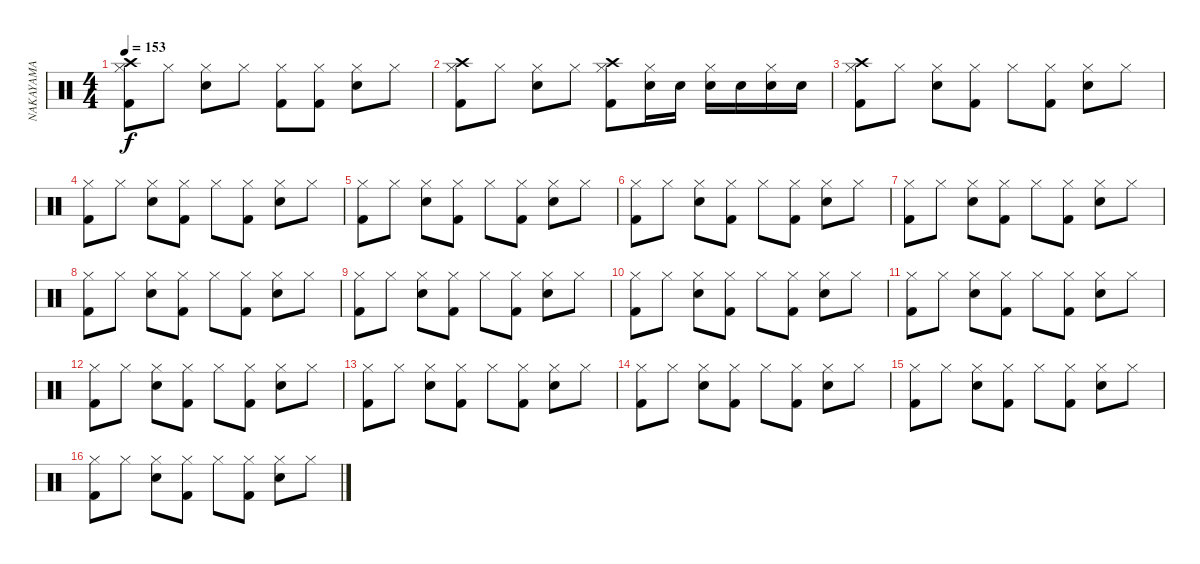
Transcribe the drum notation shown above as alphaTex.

\track ("NAKAYAMA" "NAKAYAMA") {instrument percussion}
\staff {score}
\articulation defaults
\ts (4 4)
\tempo 153
\clef neutral
\ks c
("Crash high (hit)" "Hi-Hat (closed)" "Kick (hit) 2").8{dy f} "Hi-Hat (closed)".8 ("Hi-Hat (closed)" "Snare (hit) 2").8 "Hi-Hat (closed)".8 ("Hi-Hat (closed)" "Kick (hit) 2").8 ("Hi-Hat (closed)" "Kick (hit) 2").8 ("Hi-Hat (closed)" "Snare (hit) 2").8 "Hi-Hat (closed)".8 |
("Crash high (hit)" "Hi-Hat (closed)" "Kick (hit) 2").8 "Hi-Hat (closed)".8 ("Hi-Hat (closed)" "Snare (hit) 2").8 "Hi-Hat (closed)".8 ("Crash high (hit)" "Hi-Hat (closed)" "Kick (hit) 2").8 ("Hi-Hat (closed)" "Snare (hit) 2").16 "Snare (hit) 2".16 ("Hi-Hat (closed)" "Snare (hit) 2").16 "Snare (hit) 2".16 ("Hi-Hat (closed)" "Snare (hit) 2").16 "Snare (hit) 2".16 |
("Crash high (hit)" "Hi-Hat (closed)" "Kick (hit) 2").8 "Hi-Hat (closed)".8 ("Hi-Hat (closed)" "Snare (hit) 2").8 ("Hi-Hat (closed)" "Kick (hit) 2").8 "Hi-Hat (closed)".8 ("Hi-Hat (closed)" "Kick (hit) 2").8 ("Hi-Hat (closed)" "Snare (hit) 2").8 "Hi-Hat (closed)".8 |
("Hi-Hat (closed)" "Kick (hit) 2").8 "Hi-Hat (closed)".8 ("Hi-Hat (closed)" "Snare (hit) 2").8 ("Hi-Hat (closed)" "Kick (hit) 2").8 "Hi-Hat (closed)".8 ("Hi-Hat (closed)" "Kick (hit) 2").8 ("Hi-Hat (closed)" "Snare (hit) 2").8 "Hi-Hat (closed)".8 |
("Hi-Hat (closed)" "Kick (hit) 2").8 "Hi-Hat (closed)".8 ("Hi-Hat (closed)" "Snare (hit) 2").8 ("Hi-Hat (closed)" "Kick (hit) 2").8 "Hi-Hat (closed)".8 ("Hi-Hat (closed)" "Kick (hit) 2").8 ("Hi-Hat (closed)" "Snare (hit) 2").8 "Hi-Hat (closed)".8 |
("Hi-Hat (closed)" "Kick (hit) 2").8 "Hi-Hat (closed)".8 ("Hi-Hat (closed)" "Snare (hit) 2").8 ("Hi-Hat (closed)" "Kick (hit) 2").8 "Hi-Hat (closed)".8 ("Hi-Hat (closed)" "Kick (hit) 2").8 ("Hi-Hat (closed)" "Snare (hit) 2").8 "Hi-Hat (closed)".8 |
("Hi-Hat (closed)" "Kick (hit) 2").8 "Hi-Hat (closed)".8 ("Hi-Hat (closed)" "Snare (hit) 2").8 ("Hi-Hat (closed)" "Kick (hit) 2").8 "Hi-Hat (closed)".8 ("Hi-Hat (closed)" "Kick (hit) 2").8 ("Hi-Hat (closed)" "Snare (hit) 2").8 "Hi-Hat (closed)".8 |
("Hi-Hat (closed)" "Kick (hit) 2").8 "Hi-Hat (closed)".8 ("Hi-Hat (closed)" "Snare (hit) 2").8 ("Hi-Hat (closed)" "Kick (hit) 2").8 "Hi-Hat (closed)".8 ("Hi-Hat (closed)" "Kick (hit) 2").8 ("Hi-Hat (closed)" "Snare (hit) 2").8 "Hi-Hat (closed)".8 |
("Hi-Hat (closed)" "Kick (hit) 2").8 "Hi-Hat (closed)".8 ("Hi-Hat (closed)" "Snare (hit) 2").8 ("Hi-Hat (closed)" "Kick (hit) 2").8 "Hi-Hat (closed)".8 ("Hi-Hat (closed)" "Kick (hit) 2").8 ("Hi-Hat (closed)" "Snare (hit) 2").8 "Hi-Hat (closed)".8 |
("Hi-Hat (closed)" "Kick (hit) 2").8 "Hi-Hat (closed)".8 ("Hi-Hat (closed)" "Snare (hit) 2").8 ("Hi-Hat (closed)" "Kick (hit) 2").8 "Hi-Hat (closed)".8 ("Hi-Hat (closed)" "Kick (hit) 2").8 ("Hi-Hat (closed)" "Snare (hit) 2").8 "Hi-Hat (closed)".8 |
("Hi-Hat (closed)" "Kick (hit) 2").8 "Hi-Hat (closed)".8 ("Hi-Hat (closed)" "Snare (hit) 2").8 ("Hi-Hat (closed)" "Kick (hit) 2").8 "Hi-Hat (closed)".8 ("Hi-Hat (closed)" "Kick (hit) 2").8 ("Hi-Hat (closed)" "Snare (hit) 2").8 "Hi-Hat (closed)".8 |
("Hi-Hat (closed)" "Kick (hit) 2").8 "Hi-Hat (closed)".8 ("Hi-Hat (closed)" "Snare (hit) 2").8 ("Hi-Hat (closed)" "Kick (hit) 2").8 "Hi-Hat (closed)".8 ("Hi-Hat (closed)" "Kick (hit) 2").8 ("Hi-Hat (closed)" "Snare (hit) 2").8 "Hi-Hat (closed)".8 |
("Hi-Hat (closed)" "Kick (hit) 2").8 "Hi-Hat (closed)".8 ("Hi-Hat (closed)" "Snare (hit) 2").8 ("Hi-Hat (closed)" "Kick (hit) 2").8 "Hi-Hat (closed)".8 ("Hi-Hat (closed)" "Kick (hit) 2").8 ("Hi-Hat (closed)" "Snare (hit) 2").8 "Hi-Hat (closed)".8 |
("Hi-Hat (closed)" "Kick (hit) 2").8 "Hi-Hat (closed)".8 ("Hi-Hat (closed)" "Snare (hit) 2").8 ("Hi-Hat (closed)" "Kick (hit) 2").8 "Hi-Hat (closed)".8 ("Hi-Hat (closed)" "Kick (hit) 2").8 ("Hi-Hat (closed)" "Snare (hit) 2").8 "Hi-Hat (closed)".8 |
("Hi-Hat (closed)" "Kick (hit) 2").8 "Hi-Hat (closed)".8 ("Hi-Hat (closed)" "Snare (hit) 2").8 ("Hi-Hat (closed)" "Kick (hit) 2").8 "Hi-Hat (closed)".8 ("Hi-Hat (closed)" "Kick (hit) 2").8 ("Hi-Hat (closed)" "Snare (hit) 2").8 "Hi-Hat (closed)".8 |
("Hi-Hat (closed)" "Kick (hit) 2").8 "Hi-Hat (closed)".8 ("Hi-Hat (closed)" "Snare (hit) 2").8 ("Hi-Hat (closed)" "Kick (hit) 2").8 "Hi-Hat (closed)".8 ("Hi-Hat (closed)" "Kick (hit) 2").8 ("Hi-Hat (closed)" "Snare (hit) 2").8 "Hi-Hat (closed)".8
